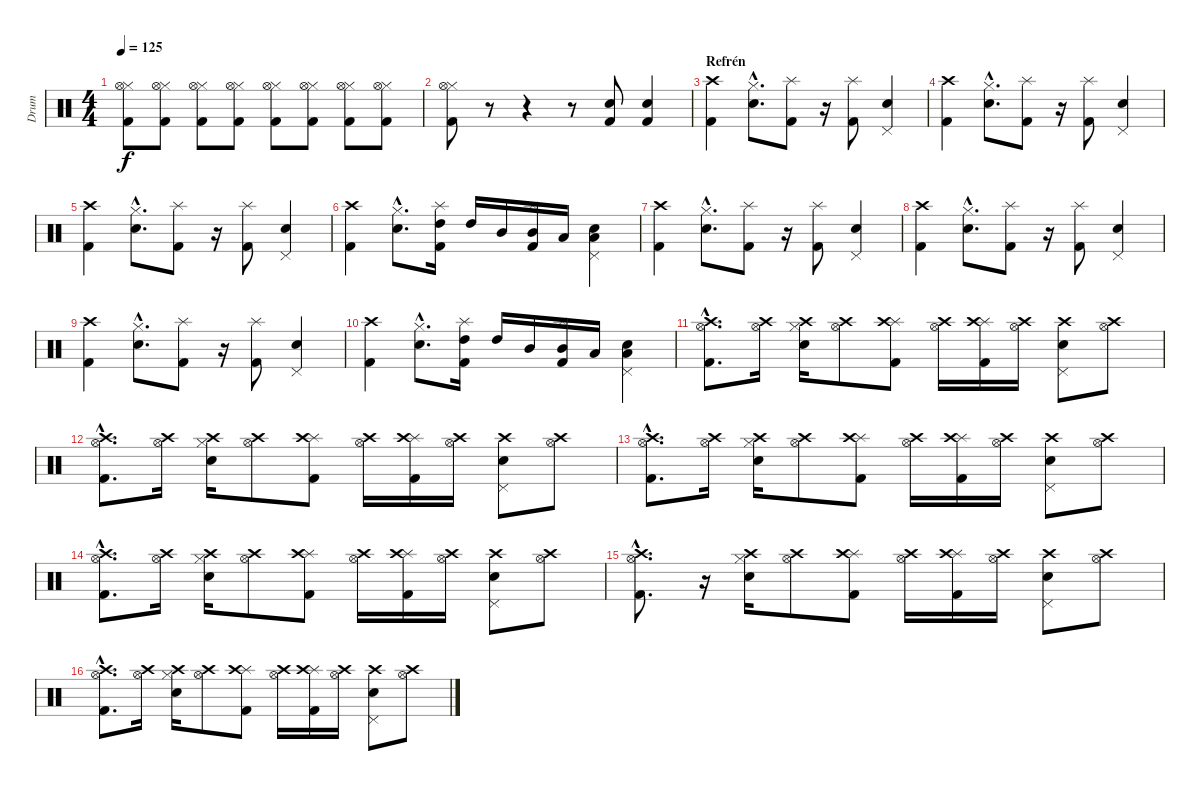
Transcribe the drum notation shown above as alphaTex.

\track ("Drum" "Drum") {instrument percussion}
\staff {score}
\articulation defaults
\ts (4 4)
\tempo 125
\clef neutral
\ks c
("Hi-Hat (closed)" "Kick (hit) 2" "Hi-Hat (open)").8{dy f} ("Hi-Hat (closed)" "Hi-Hat (open)" "Kick (hit) 2").8 ("Hi-Hat (closed)" "Kick (hit) 2" "Hi-Hat (open)").8 ("Hi-Hat (closed)" "Hi-Hat (open)" "Kick (hit) 2").8 ("Hi-Hat (closed)" "Kick (hit) 2" "Hi-Hat (open)").8 ("Hi-Hat (closed)" "Hi-Hat (open)" "Kick (hit) 2").8 ("Hi-Hat (closed)" "Kick (hit) 2" "Hi-Hat (open)").8 ("Hi-Hat (closed)" "Hi-Hat (open)" "Kick (hit) 2").8 |
("Hi-Hat (closed)" "Hi-Hat (open)" "Kick (hit) 2").8 r.8 r.4 r.8 ("Snare (hit) 2" "Kick (hit) 2").8 ("Snare (hit) 2" "Kick (hit) 2").4 |
\section ("" "Refrén")
("Kick (hit) 2" "Crash high (hit)").4 ("Snare (hit) 2"{hac} "Hi-Hat (closed)"{hac}).8{d} ("Kick (hit) 2" "Splash (hit)").8 r.16 ("Kick (hit) 2" "Splash (hit)").8 ("Snare (hit) 2" "Pedal Hi-Hat (hit)").4 |
("Kick (hit) 2" "Crash high (hit)").4 ("Snare (hit) 2"{hac} "Hi-Hat (closed)"{hac}).8{d} ("Kick (hit) 2" "Splash (hit)").8 r.16 ("Kick (hit) 2" "Splash (hit)").8 ("Snare (hit) 2" "Pedal Hi-Hat (hit)").4 |
("Kick (hit) 2" "Crash high (hit)").4 ("Snare (hit) 2"{hac} "Hi-Hat (closed)"{hac}).8{d} ("Kick (hit) 2" "Splash (hit)").8 r.16 ("Kick (hit) 2" "Splash (hit)").8 ("Snare (hit) 2" "Pedal Hi-Hat (hit)").4 |
("Kick (hit) 2" "Crash high (hit)").4 ("Snare (hit) 2"{hac} "Hi-Hat (closed)"{hac}).8{d} ("Kick (hit) 2" "Splash (hit)" "High Tom (hit)").16 "High Tom (hit)".16 "Mid Tom (hit)".16 ("Kick (hit) 2" "Splash (hit)" "Mid Tom (hit)").16 "Low Tom (hit)".16 ("Snare (hit) 2" "Pedal Hi-Hat (hit)" "Low Tom (hit)").4 |
("Kick (hit) 2" "Crash high (hit)").4 ("Snare (hit) 2"{hac} "Hi-Hat (closed)"{hac}).8{d} ("Kick (hit) 2" "Splash (hit)").8 r.16 ("Kick (hit) 2" "Splash (hit)").8 ("Snare (hit) 2" "Pedal Hi-Hat (hit)").4 |
("Kick (hit) 2" "Crash high (hit)").4 ("Snare (hit) 2"{hac} "Hi-Hat (closed)"{hac}).8{d} ("Kick (hit) 2" "Splash (hit)").8 r.16 ("Kick (hit) 2" "Splash (hit)").8 ("Snare (hit) 2" "Pedal Hi-Hat (hit)").4 |
("Kick (hit) 2" "Crash high (hit)").4 ("Snare (hit) 2"{hac} "Hi-Hat (closed)"{hac}).8{d} ("Kick (hit) 2" "Splash (hit)").8 r.16 ("Kick (hit) 2" "Splash (hit)").8 ("Snare (hit) 2" "Pedal Hi-Hat (hit)").4 |
("Kick (hit) 2" "Crash high (hit)").4 ("Snare (hit) 2"{hac} "Hi-Hat (closed)"{hac}).8{d} ("Kick (hit) 2" "Splash (hit)" "High Tom (hit)").16 "High Tom (hit)".16 "Mid Tom (hit)".16 ("Kick (hit) 2" "Splash (hit)" "Mid Tom (hit)").16 "Low Tom (hit)".16 ("Snare (hit) 2" "Pedal Hi-Hat (hit)" "Low Tom (hit)").4 |
("Kick (hit) 2"{hac} "Crash high (hit)"{hac} "Hi-Hat (open)"{hac}).8{d} ("Hi-Hat (open)" "Crash high (hit)").16 ("Snare (hit) 2" "Hi-Hat (closed)" "Crash high (hit)").16 ("Hi-Hat (open)" "Crash high (hit)").8 ("Kick (hit) 2" "Splash (hit)" "Crash high (hit)").8 ("Hi-Hat (open)" "Crash high (hit)").16 ("Kick (hit) 2" "Splash (hit)" "Crash high (hit)").16 ("Hi-Hat (open)" "Crash high (hit)").16 ("Snare (hit) 2" "Pedal Hi-Hat (hit)" "Crash high (hit)").8 ("Hi-Hat (open)" "Crash high (hit)").8 |
("Kick (hit) 2"{hac} "Crash high (hit)"{hac} "Hi-Hat (open)"{hac}).8{d} ("Hi-Hat (open)" "Crash high (hit)").16 ("Snare (hit) 2" "Hi-Hat (closed)" "Crash high (hit)").16 ("Hi-Hat (open)" "Crash high (hit)").8 ("Kick (hit) 2" "Splash (hit)" "Crash high (hit)").8 ("Hi-Hat (open)" "Crash high (hit)").16 ("Kick (hit) 2" "Splash (hit)" "Crash high (hit)").16 ("Hi-Hat (open)" "Crash high (hit)").16 ("Snare (hit) 2" "Pedal Hi-Hat (hit)" "Crash high (hit)").8 ("Hi-Hat (open)" "Crash high (hit)").8 |
("Kick (hit) 2"{hac} "Crash high (hit)"{hac} "Hi-Hat (open)"{hac}).8{d} ("Hi-Hat (open)" "Crash high (hit)").16 ("Snare (hit) 2" "Hi-Hat (closed)" "Crash high (hit)").16 ("Hi-Hat (open)" "Crash high (hit)").8 ("Kick (hit) 2" "Splash (hit)" "Crash high (hit)").8 ("Hi-Hat (open)" "Crash high (hit)").16 ("Kick (hit) 2" "Splash (hit)" "Crash high (hit)").16 ("Hi-Hat (open)" "Crash high (hit)").16 ("Snare (hit) 2" "Pedal Hi-Hat (hit)" "Crash high (hit)").8 ("Hi-Hat (open)" "Crash high (hit)").8 |
("Kick (hit) 2"{hac} "Crash high (hit)"{hac} "Hi-Hat (open)"{hac}).8{d} ("Hi-Hat (open)" "Crash high (hit)").16 ("Snare (hit) 2" "Hi-Hat (closed)" "Crash high (hit)").16 ("Hi-Hat (open)" "Crash high (hit)").8 ("Kick (hit) 2" "Splash (hit)" "Crash high (hit)").8 ("Hi-Hat (open)" "Crash high (hit)").16 ("Kick (hit) 2" "Splash (hit)" "Crash high (hit)").16 ("Hi-Hat (open)" "Crash high (hit)").16 ("Snare (hit) 2" "Pedal Hi-Hat (hit)" "Crash high (hit)").8 ("Hi-Hat (open)" "Crash high (hit)").8 |
("Kick (hit) 2"{hac} "Crash high (hit)"{hac} "Hi-Hat (open)"{hac}).8{d} r.16 ("Snare (hit) 2" "Hi-Hat (closed)" "Crash high (hit)").16 ("Hi-Hat (open)" "Crash high (hit)").8 ("Kick (hit) 2" "Splash (hit)" "Crash high (hit)").8 ("Hi-Hat (open)" "Crash high (hit)").16 ("Kick (hit) 2" "Splash (hit)" "Crash high (hit)").16 ("Hi-Hat (open)" "Crash high (hit)").16 ("Snare (hit) 2" "Pedal Hi-Hat (hit)" "Crash high (hit)").8 ("Hi-Hat (open)" "Crash high (hit)").8 |
("Kick (hit) 2"{hac} "Crash high (hit)"{hac} "Hi-Hat (open)"{hac}).8{d} ("Hi-Hat (open)" "Crash high (hit)").16 ("Snare (hit) 2" "Hi-Hat (closed)" "Crash high (hit)").16 ("Hi-Hat (open)" "Crash high (hit)").8 ("Kick (hit) 2" "Splash (hit)" "Crash high (hit)").8 ("Hi-Hat (open)" "Crash high (hit)").16 ("Kick (hit) 2" "Splash (hit)" "Crash high (hit)").16 ("Hi-Hat (open)" "Crash high (hit)").16 ("Snare (hit) 2" "Pedal Hi-Hat (hit)" "Crash high (hit)").8 ("Hi-Hat (open)" "Crash high (hit)").8
